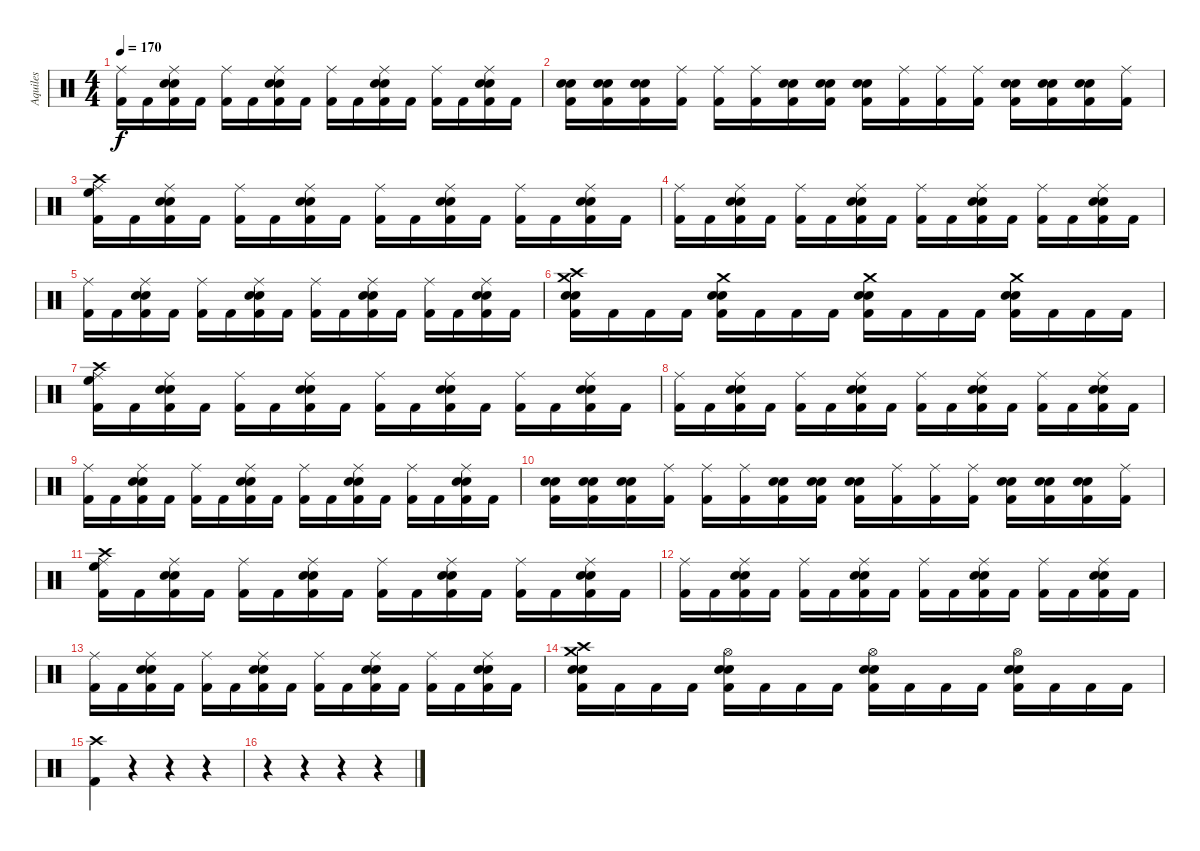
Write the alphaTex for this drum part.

\track ("Aquiles" "Aquiles") {instrument percussion}
\staff {score}
\articulation defaults
\ts (4 4)
\tempo 170
\clef neutral
\ks c
("Ride (middle)" "Kick (hit) 2").16{dy f} "Kick (hit) 2".16 ("Ride (middle)" "Electric Snare (hit)" "Snare (hit) 2" "Kick (hit) 2").16 "Kick (hit) 2".16 ("Ride (middle)" "Kick (hit) 2").16 "Kick (hit) 2".16 ("Ride (middle)" "Electric Snare (hit)" "Snare (hit) 2" "Kick (hit) 2").16 "Kick (hit) 2".16 ("Ride (middle)" "Kick (hit) 2").16 "Kick (hit) 2".16 ("Ride (middle)" "Electric Snare (hit)" "Snare (hit) 2" "Kick (hit) 2").16 "Kick (hit) 2".16 ("Ride (middle)" "Kick (hit) 2").16 "Kick (hit) 2".16 ("Ride (middle)" "Electric Snare (hit)" "Snare (hit) 2" "Kick (hit) 2").16 "Kick (hit) 2".16 |
("Electric Snare (hit)" "Snare (hit) 2" "Kick (hit) 2").16 ("Electric Snare (hit)" "Snare (hit) 2" "Kick (hit) 2").16 ("Electric Snare (hit)" "Snare (hit) 2" "Kick (hit) 2").16 ("Ride (middle)" "Kick (hit) 2").16 ("Ride (middle)" "Kick (hit) 2").16 ("Ride (middle)" "Kick (hit) 2").16 ("Electric Snare (hit)" "Snare (hit) 2" "Kick (hit) 2").16 ("Electric Snare (hit)" "Snare (hit) 2" "Kick (hit) 2").16 ("Electric Snare (hit)" "Snare (hit) 2" "Kick (hit) 2").16 ("Ride (middle)" "Kick (hit) 2").16 ("Ride (middle)" "Kick (hit) 2").16 ("Ride (middle)" "Kick (hit) 2").16 ("Electric Snare (hit)" "Snare (hit) 2" "Kick (hit) 2").16 ("Electric Snare (hit)" "Snare (hit) 2" "Kick (hit) 2").16 ("Electric Snare (hit)" "Snare (hit) 2" "Kick (hit) 2").16 ("Ride (middle)" "Kick (hit) 2").16 |
("High Floor Tom (hit)" "Ride (middle)" "Crash high (hit)" "Kick (hit) 2").16 "Kick (hit) 2".16 ("Ride (middle)" "Electric Snare (hit)" "Snare (hit) 2" "Kick (hit) 2").16 "Kick (hit) 2".16 ("Ride (middle)" "Kick (hit) 2").16 "Kick (hit) 2".16 ("Ride (middle)" "Electric Snare (hit)" "Snare (hit) 2" "Kick (hit) 2").16 "Kick (hit) 2".16 ("Ride (middle)" "Kick (hit) 2").16 "Kick (hit) 2".16 ("Ride (middle)" "Electric Snare (hit)" "Snare (hit) 2" "Kick (hit) 2").16 "Kick (hit) 2".16 ("Ride (middle)" "Kick (hit) 2").16 "Kick (hit) 2".16 ("Ride (middle)" "Electric Snare (hit)" "Snare (hit) 2" "Kick (hit) 2").16 "Kick (hit) 2".16 |
("Ride (middle)" "Kick (hit) 2").16 "Kick (hit) 2".16 ("Ride (middle)" "Electric Snare (hit)" "Snare (hit) 2" "Kick (hit) 2").16 "Kick (hit) 2".16 ("Ride (middle)" "Kick (hit) 2").16 "Kick (hit) 2".16 ("Ride (middle)" "Electric Snare (hit)" "Snare (hit) 2" "Kick (hit) 2").16 "Kick (hit) 2".16 ("Ride (middle)" "Kick (hit) 2").16 "Kick (hit) 2".16 ("Ride (middle)" "Electric Snare (hit)" "Snare (hit) 2" "Kick (hit) 2").16 "Kick (hit) 2".16 ("Ride (middle)" "Kick (hit) 2").16 "Kick (hit) 2".16 ("Ride (middle)" "Electric Snare (hit)" "Snare (hit) 2" "Kick (hit) 2").16 "Kick (hit) 2".16 |
("Ride (middle)" "Kick (hit) 2").16 "Kick (hit) 2".16 ("Ride (middle)" "Electric Snare (hit)" "Snare (hit) 2" "Kick (hit) 2").16 "Kick (hit) 2".16 ("Ride (middle)" "Kick (hit) 2").16 "Kick (hit) 2".16 ("Ride (middle)" "Electric Snare (hit)" "Snare (hit) 2" "Kick (hit) 2").16 "Kick (hit) 2".16 ("Ride (middle)" "Kick (hit) 2").16 "Kick (hit) 2".16 ("Ride (middle)" "Electric Snare (hit)" "Snare (hit) 2" "Kick (hit) 2").16 "Kick (hit) 2".16 ("Ride (middle)" "Kick (hit) 2").16 "Kick (hit) 2".16 ("Ride (middle)" "Electric Snare (hit)" "Snare (hit) 2" "Kick (hit) 2").16 "Kick (hit) 2".16 |
("Crash medium (hit)" "Electric Snare (hit)" "Snare (hit) 2" "Crash high (hit)" "Kick (hit) 2").16 "Kick (hit) 2".16 "Kick (hit) 2".16 "Kick (hit) 2".16 ("Crash medium (hit)" "Electric Snare (hit)" "Snare (hit) 2" "Kick (hit) 2").16 "Kick (hit) 2".16 "Kick (hit) 2".16 "Kick (hit) 2".16 ("Crash medium (hit)" "Electric Snare (hit)" "Snare (hit) 2" "Kick (hit) 2").16 "Kick (hit) 2".16 "Kick (hit) 2".16 "Kick (hit) 2".16 ("Crash medium (hit)" "Electric Snare (hit)" "Snare (hit) 2" "Kick (hit) 2").16 "Kick (hit) 2".16 "Kick (hit) 2".16 "Kick (hit) 2".16 |
("High Floor Tom (hit)" "Ride (middle)" "Crash high (hit)" "Kick (hit) 2").16 "Kick (hit) 2".16 ("Ride (middle)" "Electric Snare (hit)" "Snare (hit) 2" "Kick (hit) 2").16 "Kick (hit) 2".16 ("Ride (middle)" "Kick (hit) 2").16 "Kick (hit) 2".16 ("Ride (middle)" "Electric Snare (hit)" "Snare (hit) 2" "Kick (hit) 2").16 "Kick (hit) 2".16 ("Ride (middle)" "Kick (hit) 2").16 "Kick (hit) 2".16 ("Ride (middle)" "Electric Snare (hit)" "Snare (hit) 2" "Kick (hit) 2").16 "Kick (hit) 2".16 ("Ride (middle)" "Kick (hit) 2").16 "Kick (hit) 2".16 ("Ride (middle)" "Electric Snare (hit)" "Snare (hit) 2" "Kick (hit) 2").16 "Kick (hit) 2".16 |
("Ride (middle)" "Kick (hit) 2").16 "Kick (hit) 2".16 ("Ride (middle)" "Electric Snare (hit)" "Snare (hit) 2" "Kick (hit) 2").16 "Kick (hit) 2".16 ("Ride (middle)" "Kick (hit) 2").16 "Kick (hit) 2".16 ("Ride (middle)" "Electric Snare (hit)" "Snare (hit) 2" "Kick (hit) 2").16 "Kick (hit) 2".16 ("Ride (middle)" "Kick (hit) 2").16 "Kick (hit) 2".16 ("Ride (middle)" "Electric Snare (hit)" "Snare (hit) 2" "Kick (hit) 2").16 "Kick (hit) 2".16 ("Ride (middle)" "Kick (hit) 2").16 "Kick (hit) 2".16 ("Ride (middle)" "Electric Snare (hit)" "Snare (hit) 2" "Kick (hit) 2").16 "Kick (hit) 2".16 |
("Ride (middle)" "Kick (hit) 2").16 "Kick (hit) 2".16 ("Ride (middle)" "Electric Snare (hit)" "Snare (hit) 2" "Kick (hit) 2").16 "Kick (hit) 2".16 ("Ride (middle)" "Kick (hit) 2").16 "Kick (hit) 2".16 ("Ride (middle)" "Electric Snare (hit)" "Snare (hit) 2" "Kick (hit) 2").16 "Kick (hit) 2".16 ("Ride (middle)" "Kick (hit) 2").16 "Kick (hit) 2".16 ("Ride (middle)" "Electric Snare (hit)" "Snare (hit) 2" "Kick (hit) 2").16 "Kick (hit) 2".16 ("Ride (middle)" "Kick (hit) 2").16 "Kick (hit) 2".16 ("Ride (middle)" "Electric Snare (hit)" "Snare (hit) 2" "Kick (hit) 2").16 "Kick (hit) 2".16 |
("Electric Snare (hit)" "Snare (hit) 2" "Kick (hit) 2").16 ("Electric Snare (hit)" "Snare (hit) 2" "Kick (hit) 2").16 ("Electric Snare (hit)" "Snare (hit) 2" "Kick (hit) 2").16 ("Ride (middle)" "Kick (hit) 2").16 ("Ride (middle)" "Kick (hit) 2").16 ("Ride (middle)" "Kick (hit) 2").16 ("Electric Snare (hit)" "Snare (hit) 2" "Kick (hit) 2").16 ("Electric Snare (hit)" "Snare (hit) 2" "Kick (hit) 2").16 ("Electric Snare (hit)" "Snare (hit) 2" "Kick (hit) 2").16 ("Ride (middle)" "Kick (hit) 2").16 ("Ride (middle)" "Kick (hit) 2").16 ("Ride (middle)" "Kick (hit) 2").16 ("Electric Snare (hit)" "Snare (hit) 2" "Kick (hit) 2").16 ("Electric Snare (hit)" "Snare (hit) 2" "Kick (hit) 2").16 ("Electric Snare (hit)" "Snare (hit) 2" "Kick (hit) 2").16 ("Ride (middle)" "Kick (hit) 2").16 |
("High Floor Tom (hit)" "Ride (middle)" "Crash high (hit)" "Kick (hit) 2").16 "Kick (hit) 2".16 ("Ride (middle)" "Electric Snare (hit)" "Snare (hit) 2" "Kick (hit) 2").16 "Kick (hit) 2".16 ("Ride (middle)" "Kick (hit) 2").16 "Kick (hit) 2".16 ("Ride (middle)" "Electric Snare (hit)" "Snare (hit) 2" "Kick (hit) 2").16 "Kick (hit) 2".16 ("Ride (middle)" "Kick (hit) 2").16 "Kick (hit) 2".16 ("Ride (middle)" "Electric Snare (hit)" "Snare (hit) 2" "Kick (hit) 2").16 "Kick (hit) 2".16 ("Ride (middle)" "Kick (hit) 2").16 "Kick (hit) 2".16 ("Ride (middle)" "Electric Snare (hit)" "Snare (hit) 2" "Kick (hit) 2").16 "Kick (hit) 2".16 |
("Ride (middle)" "Kick (hit) 2").16 "Kick (hit) 2".16 ("Ride (middle)" "Electric Snare (hit)" "Snare (hit) 2" "Kick (hit) 2").16 "Kick (hit) 2".16 ("Ride (middle)" "Kick (hit) 2").16 "Kick (hit) 2".16 ("Ride (middle)" "Electric Snare (hit)" "Snare (hit) 2" "Kick (hit) 2").16 "Kick (hit) 2".16 ("Ride (middle)" "Kick (hit) 2").16 "Kick (hit) 2".16 ("Ride (middle)" "Electric Snare (hit)" "Snare (hit) 2" "Kick (hit) 2").16 "Kick (hit) 2".16 ("Ride (middle)" "Kick (hit) 2").16 "Kick (hit) 2".16 ("Ride (middle)" "Electric Snare (hit)" "Snare (hit) 2" "Kick (hit) 2").16 "Kick (hit) 2".16 |
("Ride (middle)" "Kick (hit) 2").16 "Kick (hit) 2".16 ("Ride (middle)" "Electric Snare (hit)" "Snare (hit) 2" "Kick (hit) 2").16 "Kick (hit) 2".16 ("Ride (middle)" "Kick (hit) 2").16 "Kick (hit) 2".16 ("Ride (middle)" "Electric Snare (hit)" "Snare (hit) 2" "Kick (hit) 2").16 "Kick (hit) 2".16 ("Ride (middle)" "Kick (hit) 2").16 "Kick (hit) 2".16 ("Ride (middle)" "Electric Snare (hit)" "Snare (hit) 2" "Kick (hit) 2").16 "Kick (hit) 2".16 ("Ride (middle)" "Kick (hit) 2").16 "Kick (hit) 2".16 ("Ride (middle)" "Electric Snare (hit)" "Snare (hit) 2" "Kick (hit) 2").16 "Kick (hit) 2".16 |
("Crash medium (hit)" "Electric Snare (hit)" "Snare (hit) 2" "Crash high (hit)" "Kick (hit) 2").16 "Kick (hit) 2".16 "Kick (hit) 2".16 "Kick (hit) 2".16 ("Hi-Hat (open)" "Electric Snare (hit)" "Snare (hit) 2" "Kick (hit) 2").16 "Kick (hit) 2".16 "Kick (hit) 2".16 "Kick (hit) 2".16 ("Hi-Hat (open)" "Electric Snare (hit)" "Snare (hit) 2" "Kick (hit) 2").16 "Kick (hit) 2".16 "Kick (hit) 2".16 "Kick (hit) 2".16 ("Hi-Hat (open)" "Electric Snare (hit)" "Snare (hit) 2" "Kick (hit) 2").16 "Kick (hit) 2".16 "Kick (hit) 2".16 "Kick (hit) 2".16 |
("Crash high (hit)" "Kick (hit) 2").4 r.4 r.4 r.4 |
r.4 r.4 r.4 r.4
